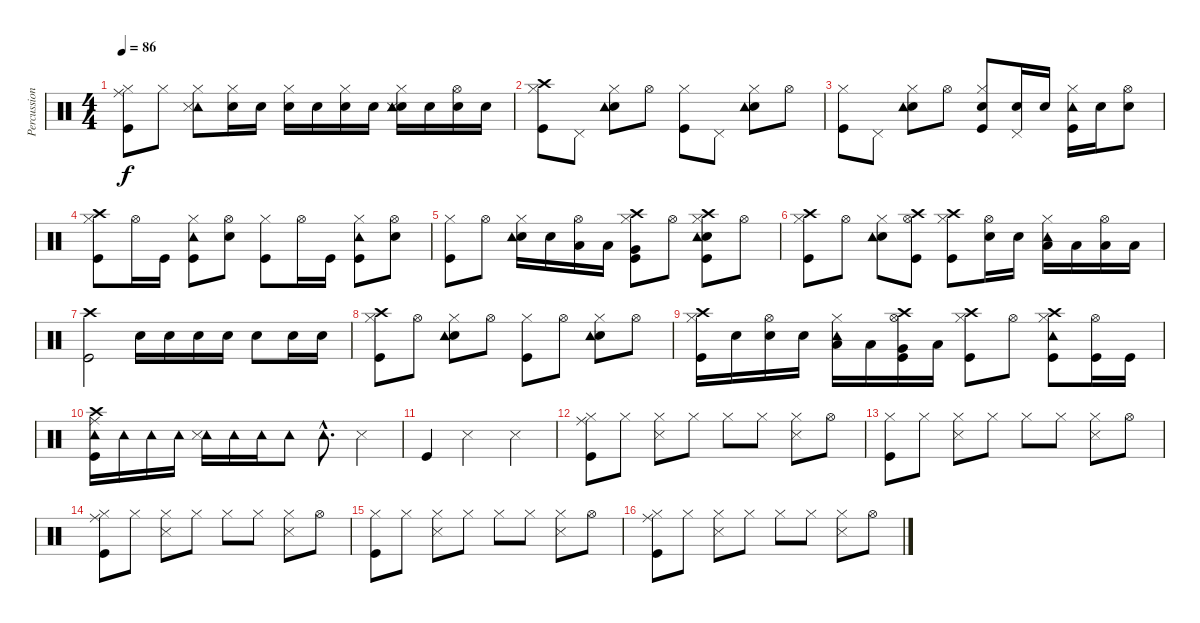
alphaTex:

\track ("Percussion" "Percussion") {instrument percussion}
\staff {score}
\articulation defaults
\ts (4 4)
\tempo 86
\clef neutral
\ks c
("Kick (hit)" "Hi-Hat (closed)" "Ride (middle)").8{dy f} "Hi-Hat (closed)".8 ("Hi-Hat (closed)" "Tambourine (hit)" "Snare (side stick) 3").8 ("Electric Snare (hit)" "Hi-Hat (closed)").16 "Electric Snare (hit)".16 ("Hi-Hat (closed)" "Electric Snare (hit)").16 "Electric Snare (hit)".16 ("Electric Snare (hit)" "Hi-Hat (closed)").16 "Electric Snare (hit)".16 ("Electric Snare (hit)" "Tambourine (hit)" "Hi-Hat (closed)" "Snare (side stick) 3").16 "Electric Snare (hit)".16 ("Electric Snare (hit)" "Hi-Hat (open)").16 "Electric Snare (hit)".16 |
("Kick (hit)" "Crash high (hit)" "Hi-Hat (closed)").8 "Pedal Hi-Hat (hit)".8 ("Electric Snare (hit)" "Tambourine (hit)" "Hi-Hat (closed)").8 "Hi-Hat (open)".8 ("Kick (hit)" "Hi-Hat (closed)").8 "Pedal Hi-Hat (hit)".8 ("Electric Snare (hit)" "Hi-Hat (closed)" "Tambourine (hit)").8 "Hi-Hat (open)".8 |
("Kick (hit)" "Hi-Hat (closed)").8 "Pedal Hi-Hat (hit)".8 ("Electric Snare (hit)" "Hi-Hat (closed)" "Tambourine (hit)").8 "Hi-Hat (open)".8 ("Hi-Hat (closed)" "Kick (hit)" "Electric Snare (hit)").8 ("Electric Snare (hit)" "Pedal Hi-Hat (hit)").16 "Electric Snare (hit)".16 ("Kick (hit)" "Tambourine (hit)" "Hi-Hat (closed)").16 "Electric Snare (hit)".16 ("Electric Snare (hit)" "Hi-Hat (open)").8 |
("Kick (hit)" "Crash high (hit)" "Hi-Hat (closed)").8 "Hi-Hat (open)".16 "Kick (hit)".16 ("Kick (hit)" "Tambourine (hit)" "Hi-Hat (closed)").8 ("Electric Snare (hit)" "Hi-Hat (open)").8 ("Kick (hit)" "Hi-Hat (closed)").8 "Hi-Hat (open)".16 "Kick (hit)".16 ("Kick (hit)" "Hi-Hat (closed)" "Tambourine (hit)").8 ("Electric Snare (hit)" "Hi-Hat (open)").8 |
("Kick (hit)" "Hi-Hat (closed)").8 "Hi-Hat (open)".8 ("Electric Snare (hit)" "Hi-Hat (closed)" "Tambourine (hit)").16 "Electric Snare (hit)".16 ("Low Tom (hit)" "Hi-Hat (open)").16 "Low Tom (hit)".16 ("Hi-Hat (closed)" "Kick (hit)" "Very Low Tom (hit)" "Crash high (hit)").8 "Hi-Hat (open)".8 ("Kick (hit)" "Electric Snare (hit)" "Crash high (hit)" "Tambourine (hit)" "Hi-Hat (closed)").8 "Hi-Hat (open)".8 |
("Kick (hit)" "Crash high (hit)" "Hi-Hat (closed)").8 "Hi-Hat (open)".8 ("Electric Snare (hit)" "Tambourine (hit)" "Hi-Hat (closed)").8 ("Kick (hit)" "Hi-Hat (open)" "Crash high (hit)").8 ("Kick (hit)" "Hi-Hat (closed)" "Crash high (hit)").8 ("Electric Snare (hit)" "Hi-Hat (open)").16 "Electric Snare (hit)".16 ("Hi-Hat (closed)" "Low Tom (hit)" "Tambourine (hit)").16 "Low Tom (hit)".16 ("Low Tom (hit)" "Hi-Hat (open)").16 "Low Floor Tom (hit)".16 |
("Kick (hit)" "Crash high (hit)").2 "Electric Snare (hit)".16 "Electric Snare (hit)".16 "Electric Snare (hit)".16 "Electric Snare (hit)".16 "Electric Snare (hit)".8 "Electric Snare (hit)".16 "Electric Snare (hit)".16 |
("Kick (hit)" "Crash high (hit)" "Hi-Hat (closed)").8 "Hi-Hat (open)".8 ("Electric Snare (hit)" "Tambourine (hit)" "Hi-Hat (closed)").8 "Hi-Hat (open)".8 ("Kick (hit)" "Hi-Hat (closed)").8 "Hi-Hat (open)".8 ("Electric Snare (hit)" "Hi-Hat (closed)" "Tambourine (hit)").8 "Hi-Hat (open)".8 |
("Kick (hit)" "Hi-Hat (closed)" "Crash high (hit)").16 "Electric Snare (hit)".16 ("Electric Snare (hit)" "Hi-Hat (open)").16 "Electric Snare (hit)".16 ("Hi-Hat (closed)" "Low Tom (hit)" "Tambourine (hit)").16 "Low Tom (hit)".16 ("Kick (hit)" "Very Low Tom (hit)" "Hi-Hat (open)" "Crash high (hit)").16 "Low Floor Tom (hit)".16 ("Hi-Hat (closed)" "Kick (hit)" "Crash high (hit)").8 "Hi-Hat (open)".8 ("Kick (hit)" "Crash high (hit)" "Tambourine (hit)" "Hi-Hat (closed)").8 ("Kick (hit)" "Hi-Hat (open)").16 "Kick (hit)".16 |
("Kick (hit)" "Crash high (hit)" "Ride (middle)" "Tambourine (hit)").16 "Tambourine (hit)".16 "Tambourine (hit)".16 "Tambourine (hit)".16 ("Tambourine (hit)" "Snare (side stick) 3").16 "Tambourine (hit)".16 "Tambourine (hit)".16 "Tambourine (hit)".8 "Tambourine (hit)"{hac}.8{d} "Snare (side stick) 3".4 |
"Kick (hit)".4 "Snare (side stick) 3".2 "Snare (side stick) 3".4 |
("Kick (hit)" "Ride (middle)" "Hi-Hat (closed)").8 "Hi-Hat (closed)".8 ("Hi-Hat (closed)" "Snare (side stick) 3").8 "Hi-Hat (closed)".8 "Hi-Hat (closed)".8 "Hi-Hat (closed)".8 ("Hi-Hat (closed)" "Snare (side stick) 3").8 "Hi-Hat (open)".8 |
("Kick (hit)" "Hi-Hat (closed)").8 "Hi-Hat (closed)".8 ("Hi-Hat (closed)" "Snare (side stick) 3").8 "Hi-Hat (closed)".8 "Hi-Hat (closed)".8 "Hi-Hat (closed)".8 ("Hi-Hat (closed)" "Snare (side stick) 3").8 "Hi-Hat (open)".8 |
("Kick (hit)" "Ride (middle)" "Hi-Hat (closed)").8 "Hi-Hat (closed)".8 ("Hi-Hat (closed)" "Snare (side stick) 3").8 "Hi-Hat (closed)".8 "Hi-Hat (closed)".8 "Hi-Hat (closed)".8 ("Hi-Hat (closed)" "Snare (side stick) 3").8 "Hi-Hat (open)".8 |
("Kick (hit)" "Hi-Hat (closed)").8 "Hi-Hat (closed)".8 ("Hi-Hat (closed)" "Snare (side stick) 3").8 "Hi-Hat (closed)".8 "Hi-Hat (closed)".8 "Hi-Hat (closed)".8 ("Hi-Hat (closed)" "Snare (side stick) 3").8 "Hi-Hat (open)".8 |
("Kick (hit)" "Ride (middle)" "Hi-Hat (closed)").8 "Hi-Hat (closed)".8 ("Hi-Hat (closed)" "Snare (side stick) 3").8 "Hi-Hat (closed)".8 "Hi-Hat (closed)".8 "Hi-Hat (closed)".8 ("Hi-Hat (closed)" "Snare (side stick) 3").8 "Hi-Hat (open)".8
